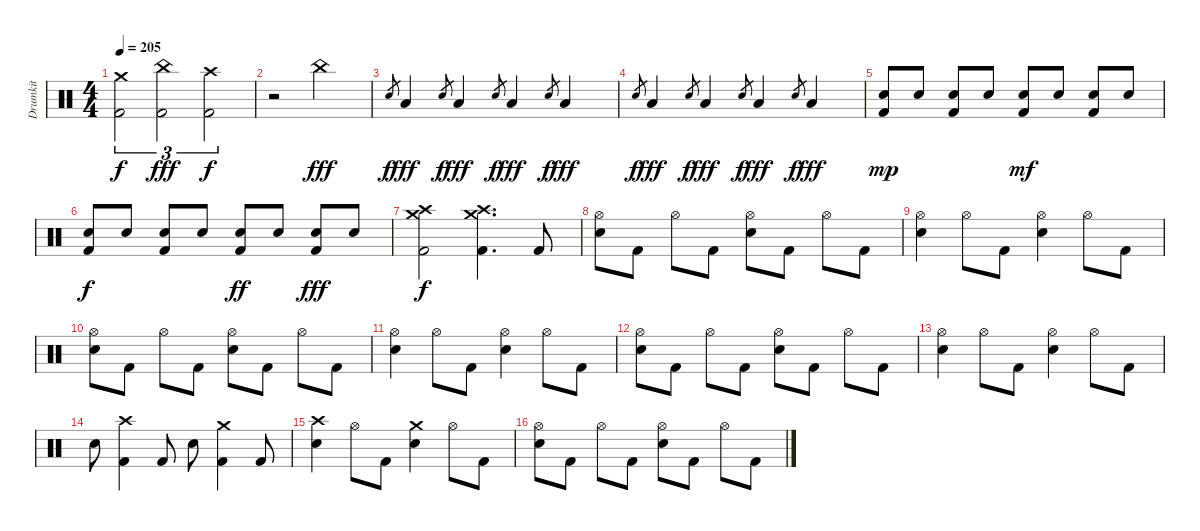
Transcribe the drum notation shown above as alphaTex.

\track ("Drumkit" "Drumkit") {instrument percussion}
\staff {score}
\articulation defaults
\ts (4 4)
\tempo 205
\clef neutral
\ks c
("Crash medium (hit)" "Kick (hit) 2").2{tu (3 2) dy f} ("China (hit)" "Kick (hit) 2").2{tu (3 2) dy fff} ("Crash high (hit)" "Kick (hit) 2").2{tu (3 2) dy f} |
r.2 "China (hit)".2{dy fff} |
"Electric Snare (hit)".8{gr dy f} "Low Floor Tom (hit)".4{dy fff} "Electric Snare (hit)".8{gr dy f} "Low Floor Tom (hit)".4{dy fff} "Electric Snare (hit)".8{gr dy f} "Low Floor Tom (hit)".4{dy fff} "Electric Snare (hit)".8{gr dy f} "Low Floor Tom (hit)".4{dy fff} |
"Electric Snare (hit)".8{gr dy f} "Low Floor Tom (hit)".4{dy fff} "Electric Snare (hit)".8{gr dy f} "Low Floor Tom (hit)".4{dy fff} "Electric Snare (hit)".8{gr dy f} "Low Floor Tom (hit)".4{dy fff} "Electric Snare (hit)".8{gr dy f} "Low Floor Tom (hit)".4{dy fff} |
("Electric Snare (hit)" "Kick (hit) 2").8{dy mp} "Electric Snare (hit)".8 ("Electric Snare (hit)" "Kick (hit) 2").8 "Electric Snare (hit)".8 ("Electric Snare (hit)" "Kick (hit) 2").8{dy mf} "Electric Snare (hit)".8 ("Electric Snare (hit)" "Kick (hit) 2").8 "Electric Snare (hit)".8 |
("Electric Snare (hit)" "Kick (hit) 2").8{dy f} "Electric Snare (hit)".8 ("Electric Snare (hit)" "Kick (hit) 2").8 "Electric Snare (hit)".8 ("Electric Snare (hit)" "Kick (hit) 2").8{dy ff} "Electric Snare (hit)".8 ("Electric Snare (hit)" "Kick (hit) 2").8{dy fff} "Electric Snare (hit)".8 |
("Crash high (hit)" "Crash medium (hit)" "Kick (hit) 2").2{dy f} ("Crash high (hit)" "Crash medium (hit)" "Kick (hit) 2").4{d} "Kick (hit) 2".8 |
("Hi-Hat (open)" "Electric Snare (hit)").8 "Kick (hit) 2".8 "Hi-Hat (open)".8 "Kick (hit) 2".8 ("Hi-Hat (open)" "Electric Snare (hit)").8 "Kick (hit) 2".8 "Hi-Hat (open)".8 "Kick (hit) 2".8 |
("Hi-Hat (open)" "Electric Snare (hit)").4 "Hi-Hat (open)".8 "Kick (hit) 2".8 ("Hi-Hat (open)" "Electric Snare (hit)").4 "Hi-Hat (open)".8 "Kick (hit) 2".8 |
("Hi-Hat (open)" "Electric Snare (hit)").8 "Kick (hit) 2".8 "Hi-Hat (open)".8 "Kick (hit) 2".8 ("Hi-Hat (open)" "Electric Snare (hit)").8 "Kick (hit) 2".8 "Hi-Hat (open)".8 "Kick (hit) 2".8 |
("Hi-Hat (open)" "Electric Snare (hit)").4 "Hi-Hat (open)".8 "Kick (hit) 2".8 ("Hi-Hat (open)" "Electric Snare (hit)").4 "Hi-Hat (open)".8 "Kick (hit) 2".8 |
("Hi-Hat (open)" "Electric Snare (hit)").8 "Kick (hit) 2".8 "Hi-Hat (open)".8 "Kick (hit) 2".8 ("Hi-Hat (open)" "Electric Snare (hit)").8 "Kick (hit) 2".8 "Hi-Hat (open)".8 "Kick (hit) 2".8 |
("Hi-Hat (open)" "Electric Snare (hit)").4 "Hi-Hat (open)".8 "Kick (hit) 2".8 ("Hi-Hat (open)" "Electric Snare (hit)").4 "Hi-Hat (open)".8 "Kick (hit) 2".8 |
"Electric Snare (hit)".8 ("Crash high (hit)" "Kick (hit) 2").4 "Kick (hit) 2".8 "Electric Snare (hit)".8 ("Crash medium (hit)" "Kick (hit) 2").4 "Kick (hit) 2".8 |
("Crash high (hit)" "Electric Snare (hit)").4 "Hi-Hat (open)".8 "Kick (hit) 2".8 ("Crash medium (hit)" "Electric Snare (hit)").4 "Hi-Hat (open)".8 "Kick (hit) 2".8 |
("Hi-Hat (open)" "Electric Snare (hit)").8 "Kick (hit) 2".8 "Hi-Hat (open)".8 "Kick (hit) 2".8 ("Hi-Hat (open)" "Electric Snare (hit)").8 "Kick (hit) 2".8 "Hi-Hat (open)".8 "Kick (hit) 2".8
